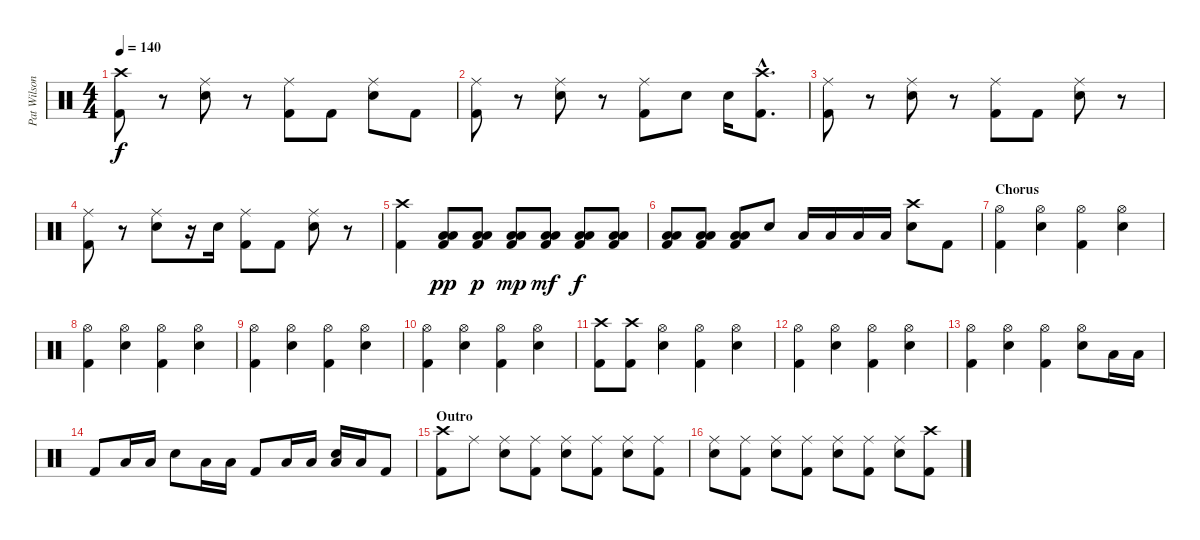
\track ("Pat Wilson - Drums" "Pat Wilson") {instrument percussion}
\staff {score}
\articulation defaults
\ts (4 4)
\tempo 140
\clef neutral
\ks c
("Crash high (hit)" "Kick (hit) 2").8{dy f} r.8 ("Ride (middle)" "Electric Snare (hit)").8 r.8 ("Ride (middle)" "Kick (hit) 2").8 "Kick (hit) 2".8 ("Ride (middle)" "Electric Snare (hit)").8 "Kick (hit) 2".8 |
("Ride (middle)" "Kick (hit) 2").8 r.8 ("Ride (middle)" "Electric Snare (hit)").8 r.8 ("Ride (middle)" "Kick (hit) 2").8 "Electric Snare (hit)".8 "Electric Snare (hit)".16 ("Crash high (hit)"{hac} "Kick (hit) 2"{hac}).8{d} |
("Ride (middle)" "Kick (hit) 2").8 r.8 ("Ride (middle)" "Electric Snare (hit)").8 r.8 ("Ride (middle)" "Kick (hit) 2").8 "Kick (hit) 2".8 ("Ride (middle)" "Electric Snare (hit)").8 r.8 |
("Ride (middle)" "Kick (hit) 2").8 r.8 ("Ride (middle)" "Electric Snare (hit)").8 r.16 "Electric Snare (hit)".16 ("Ride (middle)" "Kick (hit) 2").8 "Kick (hit) 2".8 ("Ride (middle)" "Electric Snare (hit)").8 r.8 |
("Crash high (hit)" "Kick (hit) 2").4 ("Low Floor Tom (hit)" "Low Tom (hit)" "Kick (hit) 2").8{dy pp} ("Low Floor Tom (hit)" "Low Tom (hit)" "Kick (hit) 2").8{dy p} ("Low Floor Tom (hit)" "Low Tom (hit)" "Kick (hit) 2").8{dy mp} ("Low Floor Tom (hit)" "Low Tom (hit)" "Kick (hit) 2").8{dy mf} ("Low Floor Tom (hit)" "Low Tom (hit)" "Kick (hit) 2").8{dy f} ("Low Floor Tom (hit)" "Low Tom (hit)" "Kick (hit) 2").8 |
("Low Floor Tom (hit)" "Low Tom (hit)" "Kick (hit) 2").8 ("Low Floor Tom (hit)" "Low Tom (hit)" "Kick (hit) 2").8 ("Low Floor Tom (hit)" "Low Tom (hit)" "Kick (hit) 2").8 "Electric Snare (hit)".8 "Low Tom (hit)".16 "Low Tom (hit)".16 "Low Floor Tom (hit)".16 "Low Floor Tom (hit)".16 ("Crash high (hit)" "Electric Snare (hit)").8 "Kick (hit) 2".8 |
\section ("" "Chorus")
("Hi-Hat (open)" "Kick (hit) 2").4 ("Hi-Hat (open)" "Electric Snare (hit)").4 ("Hi-Hat (open)" "Kick (hit) 2").4 ("Hi-Hat (open)" "Electric Snare (hit)").4 |
("Hi-Hat (open)" "Kick (hit) 2").4 ("Hi-Hat (open)" "Electric Snare (hit)").4 ("Hi-Hat (open)" "Kick (hit) 2").4 ("Hi-Hat (open)" "Electric Snare (hit)").4 |
("Hi-Hat (open)" "Kick (hit) 2").4 ("Hi-Hat (open)" "Electric Snare (hit)").4 ("Hi-Hat (open)" "Kick (hit) 2").4 ("Hi-Hat (open)" "Electric Snare (hit)").4 |
("Hi-Hat (open)" "Kick (hit) 2").4 ("Hi-Hat (open)" "Electric Snare (hit)").4 ("Hi-Hat (open)" "Kick (hit) 2").4 ("Hi-Hat (open)" "Electric Snare (hit)").4 |
("Crash high (hit)" "Kick (hit) 2").8 ("Crash high (hit)" "Kick (hit) 2").8 ("Hi-Hat (open)" "Electric Snare (hit)").4 ("Hi-Hat (open)" "Kick (hit) 2").4 ("Hi-Hat (open)" "Electric Snare (hit)").4 |
("Hi-Hat (open)" "Kick (hit) 2").4 ("Hi-Hat (open)" "Electric Snare (hit)").4 ("Hi-Hat (open)" "Kick (hit) 2").4 ("Hi-Hat (open)" "Electric Snare (hit)").4 |
("Hi-Hat (open)" "Kick (hit) 2").4 ("Hi-Hat (open)" "Electric Snare (hit)").4 ("Hi-Hat (open)" "Kick (hit) 2").4 ("Hi-Hat (open)" "Electric Snare (hit)").8 "Low Tom (hit)".16 "Low Tom (hit)".16 |
"Kick (hit) 2".8 "Low Tom (hit)".16 "Low Tom (hit)".16 "Electric Snare (hit)".8 "Low Tom (hit)".16 "Low Tom (hit)".16 "Kick (hit) 2".8 "Low Tom (hit)".16 "Low Tom (hit)".16 ("Low Floor Tom (hit)" "Electric Snare (hit)").16 "Low Floor Tom (hit)".16 "Kick (hit) 2".8 |
\section ("" "Outro")
("Crash high (hit)" "Kick (hit) 2").8 "Ride (middle)".8 ("Ride (middle)" "Electric Snare (hit)").8 ("Ride (middle)" "Kick (hit) 2").8 ("Ride (middle)" "Electric Snare (hit)").8 ("Ride (middle)" "Kick (hit) 2").8 ("Ride (middle)" "Electric Snare (hit)").8 ("Ride (middle)" "Kick (hit) 2").8 |
("Ride (middle)" "Electric Snare (hit)").8 ("Ride (middle)" "Kick (hit) 2").8 ("Ride (middle)" "Electric Snare (hit)").8 ("Ride (middle)" "Kick (hit) 2").8 ("Ride (middle)" "Electric Snare (hit)").8 ("Ride (middle)" "Kick (hit) 2").8 ("Ride (middle)" "Electric Snare (hit)").8 ("Crash high (hit)" "Kick (hit) 2").8
